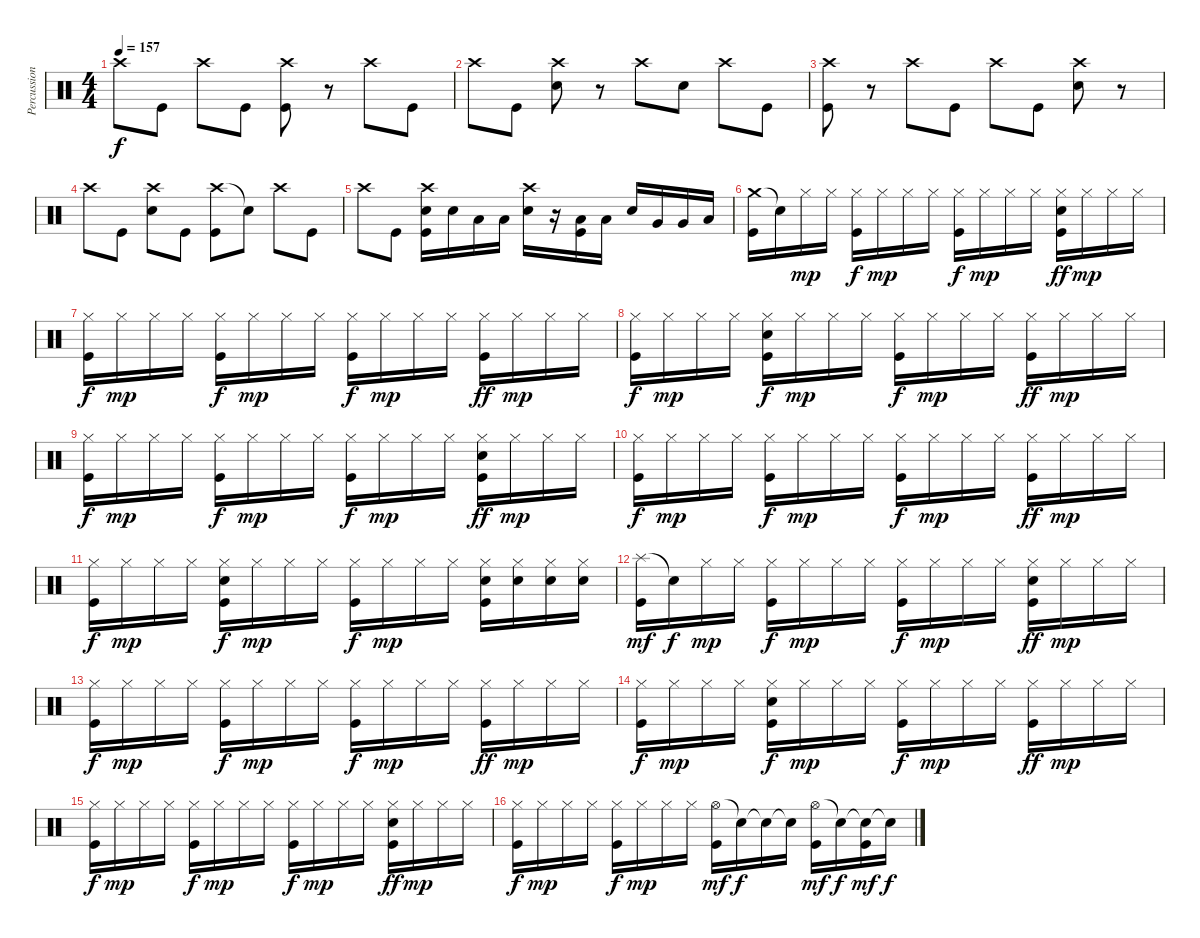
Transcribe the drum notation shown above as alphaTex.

\track ("Percussion" "Percussion") {instrument percussion}
\staff {score}
\articulation defaults
\ts (4 4)
\tempo 157
\clef neutral
\ks c "Crash high (hit)".8{dy f} "Kick (hit)".8 "Crash high (hit)".8 "Kick (hit)".8
("Crash high (hit)" "Kick (hit)").8 r.8 "Crash high (hit)".8 "Kick (hit)".8 |
"Crash high (hit)".8 "Kick (hit)".8 ("Crash high (hit)" "Electric Snare (hit)").8 r.8 "Crash high (hit)".8 "Electric Snare (hit)".8 "Crash high (hit)".8 "Kick (hit)".8 |
("Crash high (hit)" "Kick (hit)").8 r.8 "Crash high (hit)".8 "Kick (hit)".8 "Crash high (hit)".8 "Kick (hit)".8 ("Crash high (hit)" "Electric Snare (hit)").8 r.8 |
"Crash high (hit)".8 "Kick (hit)".8 ("Crash high (hit)" "Electric Snare (hit)").8 "Kick (hit)".8 ("Crash high (hit)" "Kick (hit)").8 "Snare (hit)"{t}.8 "Crash high (hit)".8 "Kick (hit)".8 |
"Crash high (hit)".8 "Kick (hit)".8 ("Crash high (hit)" "Electric Snare (hit)" "Kick (hit)").16 "Electric Snare (hit)".16 "Low Tom (hit)".16 "Low Tom (hit)".16 ("Crash high (hit)" "Electric Snare (hit)").16 r.16 ("Low Tom (hit)" "Kick (hit)").16 "Low Tom (hit)".16 "Electric Snare (hit)".16 "Very Low Tom (hit)".16 "Very Low Tom (hit)".16 "Low Floor Tom (hit)".16 |
("Crash medium (hit)" "Kick (hit)").16 "Snare (hit)"{t}.16 "Hi-Hat (closed)".16{dy mp} "Hi-Hat (closed)".16 ("Hi-Hat (closed)" "Kick (hit)").16{dy f} "Hi-Hat (closed)".16{dy mp} "Hi-Hat (closed)".16 "Hi-Hat (closed)".16 ("Hi-Hat (closed)" "Kick (hit)").16{dy f} "Hi-Hat (closed)".16{dy mp} "Hi-Hat (closed)".16 "Hi-Hat (closed)".16 ("Hi-Hat (closed)" "Electric Snare (hit)" "Kick (hit)").16{dy ff} "Hi-Hat (closed)".16{dy mp} "Hi-Hat (closed)".16 "Hi-Hat (closed)".16 |
("Hi-Hat (closed)" "Kick (hit)").16{dy f} "Hi-Hat (closed)".16{dy mp} "Hi-Hat (closed)".16 "Hi-Hat (closed)".16 ("Hi-Hat (closed)" "Kick (hit)").16{dy f} "Hi-Hat (closed)".16{dy mp} "Hi-Hat (closed)".16 "Hi-Hat (closed)".16 ("Hi-Hat (closed)" "Kick (hit)").16{dy f} "Hi-Hat (closed)".16{dy mp} "Hi-Hat (closed)".16 "Hi-Hat (closed)".16 ("Hi-Hat (closed)" "Kick (hit)").16{dy ff} "Hi-Hat (closed)".16{dy mp} "Hi-Hat (closed)".16 "Hi-Hat (closed)".16 |
("Hi-Hat (closed)" "Kick (hit)").16{dy f} "Hi-Hat (closed)".16{dy mp} "Hi-Hat (closed)".16 "Hi-Hat (closed)".16 ("Hi-Hat (closed)" "Electric Snare (hit)" "Kick (hit)").16{dy f} "Hi-Hat (closed)".16{dy mp} "Hi-Hat (closed)".16 "Hi-Hat (closed)".16 ("Hi-Hat (closed)" "Kick (hit)").16{dy f} "Hi-Hat (closed)".16{dy mp} "Hi-Hat (closed)".16 "Hi-Hat (closed)".16 ("Hi-Hat (closed)" "Kick (hit)").16{dy ff} "Hi-Hat (closed)".16{dy mp} "Hi-Hat (closed)".16 "Hi-Hat (closed)".16 |
("Hi-Hat (closed)" "Kick (hit)").16{dy f} "Hi-Hat (closed)".16{dy mp} "Hi-Hat (closed)".16 "Hi-Hat (closed)".16 ("Hi-Hat (closed)" "Kick (hit)").16{dy f} "Hi-Hat (closed)".16{dy mp} "Hi-Hat (closed)".16 "Hi-Hat (closed)".16 ("Hi-Hat (closed)" "Kick (hit)").16{dy f} "Hi-Hat (closed)".16{dy mp} "Hi-Hat (closed)".16 "Hi-Hat (closed)".16 ("Hi-Hat (closed)" "Electric Snare (hit)" "Kick (hit)").16{dy ff} "Hi-Hat (closed)".16{dy mp} "Hi-Hat (closed)".16 "Hi-Hat (closed)".16 |
("Hi-Hat (closed)" "Kick (hit)").16{dy f} "Hi-Hat (closed)".16{dy mp} "Hi-Hat (closed)".16 "Hi-Hat (closed)".16 ("Hi-Hat (closed)" "Kick (hit)").16{dy f} "Hi-Hat (closed)".16{dy mp} "Hi-Hat (closed)".16 "Hi-Hat (closed)".16 ("Hi-Hat (closed)" "Kick (hit)").16{dy f} "Hi-Hat (closed)".16{dy mp} "Hi-Hat (closed)".16 "Hi-Hat (closed)".16 ("Hi-Hat (closed)" "Kick (hit)").16{dy ff} "Hi-Hat (closed)".16{dy mp} "Hi-Hat (closed)".16 "Hi-Hat (closed)".16 |
("Hi-Hat (closed)" "Kick (hit)").16{dy f} "Hi-Hat (closed)".16{dy mp} "Hi-Hat (closed)".16 "Hi-Hat (closed)".16 ("Hi-Hat (closed)" "Electric Snare (hit)" "Kick (hit)").16{dy f} "Hi-Hat (closed)".16{dy mp} "Hi-Hat (closed)".16 "Hi-Hat (closed)".16 ("Hi-Hat (closed)" "Kick (hit)").16{dy f} "Hi-Hat (closed)".16{dy mp} "Hi-Hat (closed)".16 "Hi-Hat (closed)".16 ("Hi-Hat (closed)" "Electric Snare (hit)" "Kick (hit)").16 ("Hi-Hat (closed)" "Electric Snare (hit)").16 ("Hi-Hat (closed)" "Electric Snare (hit)").16 ("Hi-Hat (closed)" "Electric Snare (hit)").16 |
("Splash (hit)" "Kick (hit)").16{dy mf} "Snare (hit)"{t}.16{dy f} "Hi-Hat (closed)".16{dy mp} "Hi-Hat (closed)".16 ("Hi-Hat (closed)" "Kick (hit)").16{dy f} "Hi-Hat (closed)".16{dy mp} "Hi-Hat (closed)".16 "Hi-Hat (closed)".16 ("Hi-Hat (closed)" "Kick (hit)").16{dy f} "Hi-Hat (closed)".16{dy mp} "Hi-Hat (closed)".16 "Hi-Hat (closed)".16 ("Hi-Hat (closed)" "Electric Snare (hit)" "Kick (hit)").16{dy ff} "Hi-Hat (closed)".16{dy mp} "Hi-Hat (closed)".16 "Hi-Hat (closed)".16 |
("Hi-Hat (closed)" "Kick (hit)").16{dy f} "Hi-Hat (closed)".16{dy mp} "Hi-Hat (closed)".16 "Hi-Hat (closed)".16 ("Hi-Hat (closed)" "Kick (hit)").16{dy f} "Hi-Hat (closed)".16{dy mp} "Hi-Hat (closed)".16 "Hi-Hat (closed)".16 ("Hi-Hat (closed)" "Kick (hit)").16{dy f} "Hi-Hat (closed)".16{dy mp} "Hi-Hat (closed)".16 "Hi-Hat (closed)".16 ("Hi-Hat (closed)" "Kick (hit)").16{dy ff} "Hi-Hat (closed)".16{dy mp} "Hi-Hat (closed)".16 "Hi-Hat (closed)".16 |
("Hi-Hat (closed)" "Kick (hit)").16{dy f} "Hi-Hat (closed)".16{dy mp} "Hi-Hat (closed)".16 "Hi-Hat (closed)".16 ("Hi-Hat (closed)" "Electric Snare (hit)" "Kick (hit)").16{dy f} "Hi-Hat (closed)".16{dy mp} "Hi-Hat (closed)".16 "Hi-Hat (closed)".16 ("Hi-Hat (closed)" "Kick (hit)").16{dy f} "Hi-Hat (closed)".16{dy mp} "Hi-Hat (closed)".16 "Hi-Hat (closed)".16 ("Hi-Hat (closed)" "Kick (hit)").16{dy ff} "Hi-Hat (closed)".16{dy mp} "Hi-Hat (closed)".16 "Hi-Hat (closed)".16 |
("Hi-Hat (closed)" "Kick (hit)").16{dy f} "Hi-Hat (closed)".16{dy mp} "Hi-Hat (closed)".16 "Hi-Hat (closed)".16 ("Hi-Hat (closed)" "Kick (hit)").16{dy f} "Hi-Hat (closed)".16{dy mp} "Hi-Hat (closed)".16 "Hi-Hat (closed)".16 ("Hi-Hat (closed)" "Kick (hit)").16{dy f} "Hi-Hat (closed)".16{dy mp} "Hi-Hat (closed)".16 "Hi-Hat (closed)".16 ("Hi-Hat (closed)" "Electric Snare (hit)" "Kick (hit)").16{dy ff} "Hi-Hat (closed)".16{dy mp} "Hi-Hat (closed)".16 "Hi-Hat (closed)".16 |
("Hi-Hat (closed)" "Kick (hit)").16{dy f} "Hi-Hat (closed)".16{dy mp} "Hi-Hat (closed)".16 "Hi-Hat (closed)".16 ("Hi-Hat (closed)" "Kick (hit)").16{dy f} "Hi-Hat (closed)".16{dy mp} "Hi-Hat (closed)".16 "Hi-Hat (closed)".16 ("Hi-Hat (open)" "Kick (hit)").16{dy mf} "Snare (hit)"{t}.16{dy f} "Snare (hit)"{t}.16 "Snare (hit)"{t}.16 ("Hi-Hat (open)" "Kick (hit)").16{dy mf} "Snare (hit)"{t}.16{dy f} ("Snare (hit)"{t} "Kick (hit)").16{dy mf} "Snare (hit)"{t}.16{dy f}
